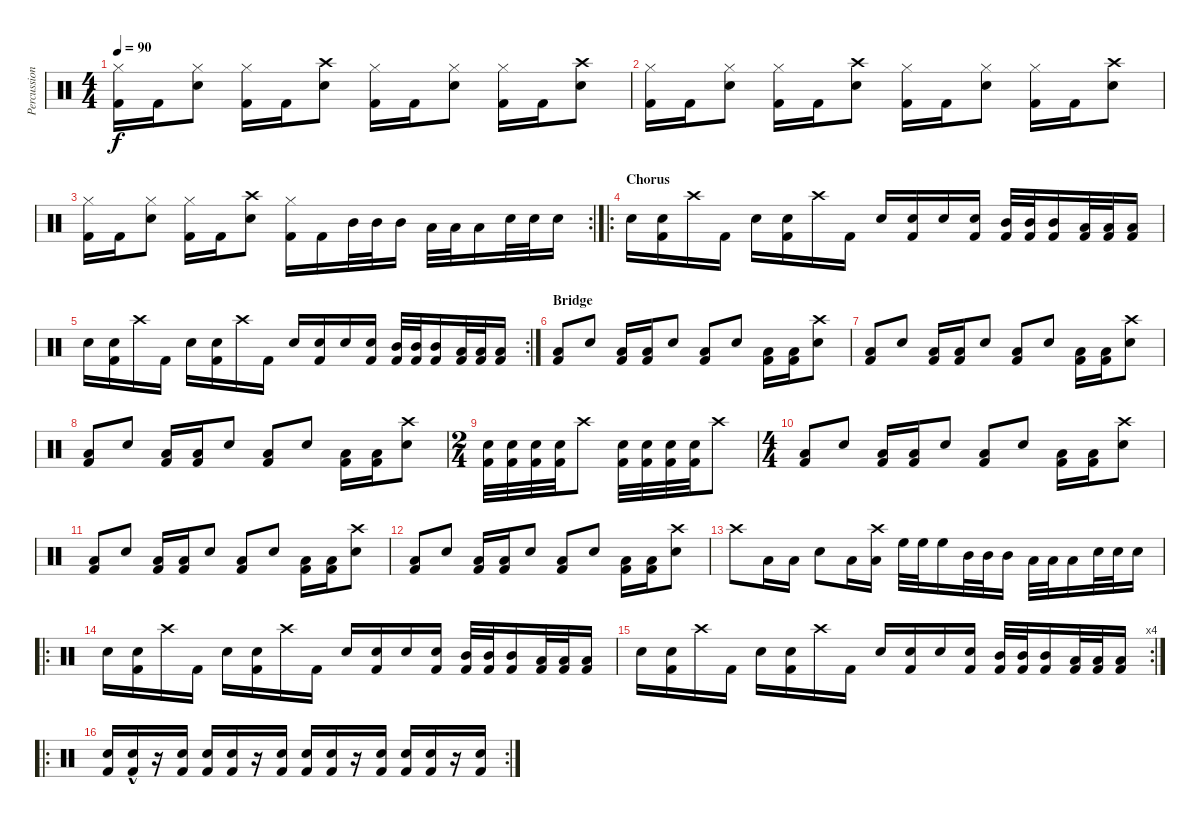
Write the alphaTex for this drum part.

\track ("Percussion" "Percussion") {instrument percussion}
\staff {score}
\articulation defaults
\ts (4 4)
\tempo 90
\clef neutral
\ks c
("Hi-Hat (closed)" "Kick (hit) 2").16{dy f} "Kick (hit) 2".16 ("Hi-Hat (closed)" "Electric Snare (hit)").8 ("Hi-Hat (closed)" "Kick (hit) 2").16 "Kick (hit) 2".16 ("Crash high (hit)" "Electric Snare (hit)").8 ("Hi-Hat (closed)" "Kick (hit) 2").16 "Kick (hit) 2".16 ("Hi-Hat (closed)" "Electric Snare (hit)").8 ("Hi-Hat (closed)" "Kick (hit) 2").16 "Kick (hit) 2".16 ("Crash high (hit)" "Electric Snare (hit)").8 |
("Hi-Hat (closed)" "Kick (hit) 2").16 "Kick (hit) 2".16 ("Hi-Hat (closed)" "Electric Snare (hit)").8 ("Hi-Hat (closed)" "Kick (hit) 2").16 "Kick (hit) 2".16 ("Crash high (hit)" "Electric Snare (hit)").8 ("Hi-Hat (closed)" "Kick (hit) 2").16 "Kick (hit) 2".16 ("Hi-Hat (closed)" "Electric Snare (hit)").8 ("Hi-Hat (closed)" "Kick (hit) 2").16 "Kick (hit) 2".16 ("Crash high (hit)" "Electric Snare (hit)").8 |
\rc 2
("Hi-Hat (closed)" "Kick (hit) 2").16 "Kick (hit) 2".16 ("Hi-Hat (closed)" "Electric Snare (hit)").8 ("Hi-Hat (closed)" "Kick (hit) 2").16 "Kick (hit) 2".16 ("Crash high (hit)" "Electric Snare (hit)").8 ("Hi-Hat (closed)" "Kick (hit) 2").16 "Kick (hit) 2".16 "Mid Tom (hit)".32 "Mid Tom (hit)".32 "Mid Tom (hit)".16 "Low Tom (hit)".32 "Low Tom (hit)".32 "Low Tom (hit)".16 "Electric Snare (hit)".32 "Electric Snare (hit)".32 "Electric Snare (hit)".16 |
\ro
\section ("" "Chorus")
"Electric Snare (hit)".16 ("Electric Snare (hit)" "Kick (hit) 2").16 "Crash high (hit)".16 "Kick (hit) 2".16 "Electric Snare (hit)".16 ("Electric Snare (hit)" "Kick (hit) 2").16 "Crash high (hit)".16 "Kick (hit) 2".16 "Electric Snare (hit)".16 ("Electric Snare (hit)" "Kick (hit) 2").16 "Electric Snare (hit)".16 ("Electric Snare (hit)" "Kick (hit) 2").16 ("Mid Tom (hit)" "Kick (hit) 2").32 ("Mid Tom (hit)" "Kick (hit) 2").32 ("Mid Tom (hit)" "Kick (hit) 2").16 ("Low Tom (hit)" "Kick (hit) 2").32 ("Low Tom (hit)" "Kick (hit) 2").32 ("Low Tom (hit)" "Kick (hit) 2").16 |
\rc 2 "Electric Snare (hit)".16
("Electric Snare (hit)" "Kick (hit) 2").16 "Crash high (hit)".16 "Kick (hit) 2".16 "Electric Snare (hit)".16 ("Electric Snare (hit)" "Kick (hit) 2").16 "Crash high (hit)".16 "Kick (hit) 2".16 "Electric Snare (hit)".16 ("Electric Snare (hit)" "Kick (hit) 2").16 "Electric Snare (hit)".16 ("Electric Snare (hit)" "Kick (hit) 2").16 ("Mid Tom (hit)" "Kick (hit) 2").32 ("Mid Tom (hit)" "Kick (hit) 2").32 ("Mid Tom (hit)" "Kick (hit) 2").16 ("Low Tom (hit)" "Kick (hit) 2").32 ("Low Tom (hit)" "Kick (hit) 2").32 ("Low Tom (hit)" "Kick (hit) 2").16 |
\section ("" "Bridge")
("Low Tom (hit)" "Kick (hit) 2").8 "Electric Snare (hit)".8 ("Low Tom (hit)" "Kick (hit) 2").16 ("Low Tom (hit)" "Kick (hit) 2").16 "Electric Snare (hit)".8 ("Low Tom (hit)" "Kick (hit) 2").8 "Electric Snare (hit)".8 ("Low Tom (hit)" "Kick (hit) 2").16 ("Low Tom (hit)" "Kick (hit) 2").16 ("Crash high (hit)" "Electric Snare (hit)").8 |
("Low Tom (hit)" "Kick (hit) 2").8 "Electric Snare (hit)".8 ("Low Tom (hit)" "Kick (hit) 2").16 ("Low Tom (hit)" "Kick (hit) 2").16 "Electric Snare (hit)".8 ("Low Tom (hit)" "Kick (hit) 2").8 "Electric Snare (hit)".8 ("Low Tom (hit)" "Kick (hit) 2").16 ("Low Tom (hit)" "Kick (hit) 2").16 ("Crash high (hit)" "Electric Snare (hit)").8 |
("Low Tom (hit)" "Kick (hit) 2").8 "Electric Snare (hit)".8 ("Low Tom (hit)" "Kick (hit) 2").16 ("Low Tom (hit)" "Kick (hit) 2").16 "Electric Snare (hit)".8 ("Low Tom (hit)" "Kick (hit) 2").8 "Electric Snare (hit)".8 ("Low Tom (hit)" "Kick (hit) 2").16 ("Low Tom (hit)" "Kick (hit) 2").16 ("Crash high (hit)" "Electric Snare (hit)").8 |
\ts (2 4)
("Electric Snare (hit)" "Kick (hit) 2").32 ("Electric Snare (hit)" "Kick (hit) 2").32 ("Electric Snare (hit)" "Kick (hit) 2").32 ("Electric Snare (hit)" "Kick (hit) 2").32 "Crash high (hit)".8 ("Electric Snare (hit)" "Kick (hit) 2").32 ("Electric Snare (hit)" "Kick (hit) 2").32 ("Electric Snare (hit)" "Kick (hit) 2").32 ("Electric Snare (hit)" "Kick (hit) 2").32 "Crash high (hit)".8 |
\ts (4 4)
("Low Tom (hit)" "Kick (hit) 2").8 "Electric Snare (hit)".8 ("Low Tom (hit)" "Kick (hit) 2").16 ("Low Tom (hit)" "Kick (hit) 2").16 "Electric Snare (hit)".8 ("Low Tom (hit)" "Kick (hit) 2").8 "Electric Snare (hit)".8 ("Low Tom (hit)" "Kick (hit) 2").16 ("Low Tom (hit)" "Kick (hit) 2").16 ("Crash high (hit)" "Electric Snare (hit)").8 |
("Low Tom (hit)" "Kick (hit) 2").8 "Electric Snare (hit)".8 ("Low Tom (hit)" "Kick (hit) 2").16 ("Low Tom (hit)" "Kick (hit) 2").16 "Electric Snare (hit)".8 ("Low Tom (hit)" "Kick (hit) 2").8 "Electric Snare (hit)".8 ("Low Tom (hit)" "Kick (hit) 2").16 ("Low Tom (hit)" "Kick (hit) 2").16 ("Crash high (hit)" "Electric Snare (hit)").8 |
("Low Tom (hit)" "Kick (hit) 2").8 "Electric Snare (hit)".8 ("Low Tom (hit)" "Kick (hit) 2").16 ("Low Tom (hit)" "Kick (hit) 2").16 "Electric Snare (hit)".8 ("Low Tom (hit)" "Kick (hit) 2").8 "Electric Snare (hit)".8 ("Low Tom (hit)" "Kick (hit) 2").16 ("Low Tom (hit)" "Kick (hit) 2").16 ("Crash high (hit)" "Electric Snare (hit)").8 |
"Crash high (hit)".8 "Low Tom (hit)".16 "Low Tom (hit)".16 "Electric Snare (hit)".8 "Low Tom (hit)".16 ("Crash high (hit)" "Low Tom (hit)").16 "High Floor Tom (hit)".32 "High Floor Tom (hit)".32 "High Floor Tom (hit)".16 "Mid Tom (hit)".32 "Mid Tom (hit)".32 "Mid Tom (hit)".16 "Low Tom (hit)".32 "Low Tom (hit)".32 "Low Tom (hit)".16 "Electric Snare (hit)".32 "Electric Snare (hit)".32 "Electric Snare (hit)".16 |
\ro "Electric Snare (hit)".16
("Electric Snare (hit)" "Kick (hit) 2").16 "Crash high (hit)".16 "Kick (hit) 2".16 "Electric Snare (hit)".16 ("Electric Snare (hit)" "Kick (hit) 2").16 "Crash high (hit)".16 "Kick (hit) 2".16 "Electric Snare (hit)".16 ("Electric Snare (hit)" "Kick (hit) 2").16 "Electric Snare (hit)".16 ("Electric Snare (hit)" "Kick (hit) 2").16 ("Mid Tom (hit)" "Kick (hit) 2").32 ("Mid Tom (hit)" "Kick (hit) 2").32 ("Mid Tom (hit)" "Kick (hit) 2").16 ("Low Tom (hit)" "Kick (hit) 2").32 ("Low Tom (hit)" "Kick (hit) 2").32 ("Low Tom (hit)" "Kick (hit) 2").16 |
\rc 4 "Electric Snare (hit)".16
("Electric Snare (hit)" "Kick (hit) 2").16 "Crash high (hit)".16 "Kick (hit) 2".16 "Electric Snare (hit)".16 ("Electric Snare (hit)" "Kick (hit) 2").16 "Crash high (hit)".16 "Kick (hit) 2".16 "Electric Snare (hit)".16 ("Electric Snare (hit)" "Kick (hit) 2").16 "Electric Snare (hit)".16 ("Electric Snare (hit)" "Kick (hit) 2").16 ("Mid Tom (hit)" "Kick (hit) 2").32 ("Mid Tom (hit)" "Kick (hit) 2").32 ("Mid Tom (hit)" "Kick (hit) 2").16 ("Low Tom (hit)" "Kick (hit) 2").32 ("Low Tom (hit)" "Kick (hit) 2").32 ("Low Tom (hit)" "Kick (hit) 2").16 |
\ro
\rc 2
("Electric Snare (hit)" "Kick (hit) 2").16 ("Electric Snare (hit)"{hac} "Kick (hit) 2").16 r.16 ("Electric Snare (hit)" "Kick (hit) 2").16 ("Electric Snare (hit)" "Kick (hit) 2").16 ("Electric Snare (hit)" "Kick (hit) 2").16 r.16 ("Electric Snare (hit)" "Kick (hit) 2").16 ("Electric Snare (hit)" "Kick (hit) 2").16 ("Electric Snare (hit)" "Kick (hit) 2").16 r.16 ("Electric Snare (hit)" "Kick (hit) 2").16 ("Electric Snare (hit)" "Kick (hit) 2").16 ("Electric Snare (hit)" "Kick (hit) 2").16 r.16 ("Electric Snare (hit)" "Kick (hit) 2").16
